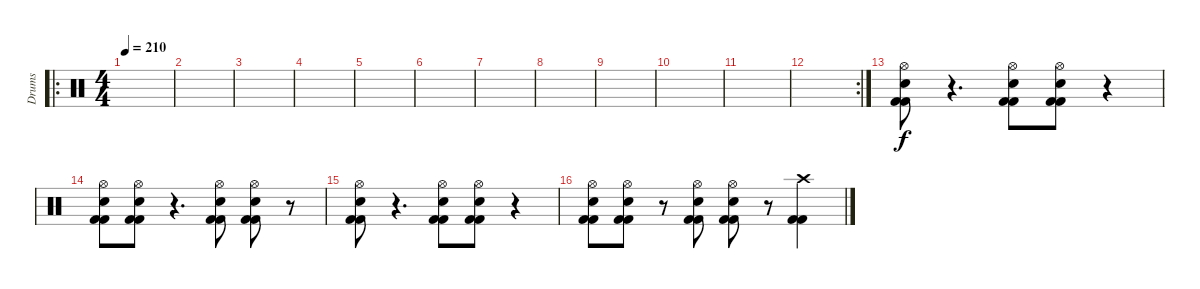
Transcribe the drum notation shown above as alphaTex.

\track ("Drums" "Drums") {instrument percussion}
\staff {score}
\articulation defaults
\ro
\ts (4 4)
\tempo 210
\clef neutral
\ks c
|
|
|
|
|
|
|
|
|
|
|
\rc 2
|
("Hi-Hat (open)" "Snare (hit) 2" "Kick (hit) 2" "Kick (hit) 2").8 r.4{d} ("Hi-Hat (open)" "Snare (hit) 2" "Kick (hit) 2" "Kick (hit) 2").8 ("Hi-Hat (open)" "Snare (hit) 2" "Kick (hit) 2" "Kick (hit) 2").8 r.4 |
("Hi-Hat (open)" "Snare (hit) 2" "Kick (hit) 2" "Kick (hit) 2").8 ("Hi-Hat (open)" "Snare (hit) 2" "Kick (hit) 2" "Kick (hit) 2").8 r.4{d} ("Hi-Hat (open)" "Snare (hit) 2" "Kick (hit) 2" "Kick (hit) 2").8 ("Hi-Hat (open)" "Snare (hit) 2" "Kick (hit) 2" "Kick (hit) 2").8 r.8 |
("Hi-Hat (open)" "Electric Snare (hit)" "Kick (hit) 2" "Kick (hit) 2").8 r.4{d} ("Hi-Hat (open)" "Snare (hit) 2" "Kick (hit) 2" "Kick (hit) 2").8 ("Hi-Hat (open)" "Electric Snare (hit)" "Kick (hit) 2" "Kick (hit) 2").8 r.4 |
("Hi-Hat (open)" "Snare (hit) 2" "Kick (hit) 2" "Kick (hit) 2").8 ("Hi-Hat (open)" "Electric Snare (hit)" "Kick (hit) 2" "Kick (hit) 2").8 r.8 ("Hi-Hat (open)" "Snare (hit) 2" "Kick (hit) 2" "Kick (hit) 2").8 ("Hi-Hat (open)" "Electric Snare (hit)" "Kick (hit) 2" "Kick (hit) 2").8 r.8 ("Crash high (hit)" "Kick (hit) 2" "Kick (hit) 2").4
